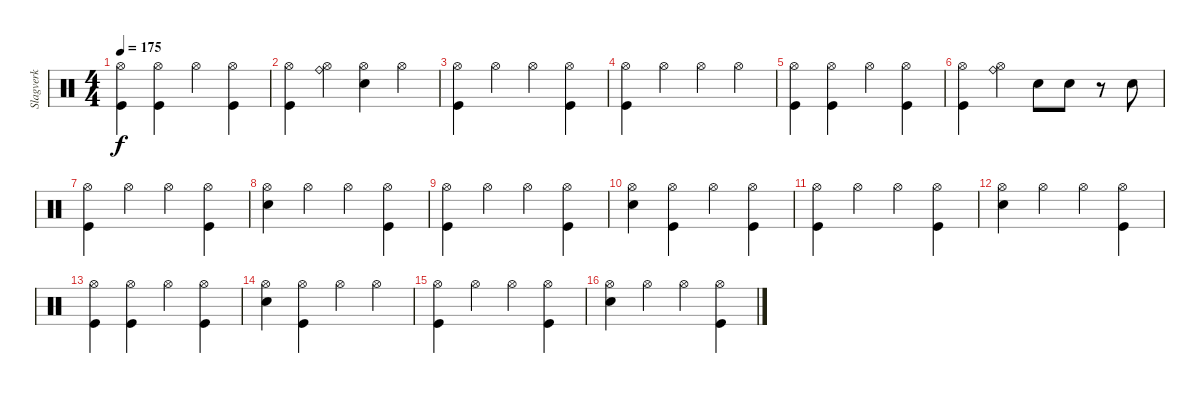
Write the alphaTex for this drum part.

\track ("Slagverk" "Slagverk") {instrument percussion}
\staff {score}
\articulation defaults
\ts (4 4)
\tempo 175
\clef neutral
\ks c
("Hi-Hat (open)" "Kick (hit)").4{dy f} ("Hi-Hat (open)" "Kick (hit)").4 "Hi-Hat (open)".4 ("Hi-Hat (open)" "Kick (hit)").4 |
("Hi-Hat (open)" "Kick (hit)").4 ("Hi-Hat (open)" "Ride (bell)").4 ("Hi-Hat (open)" "Electric Snare (hit)").4 "Hi-Hat (open)".4 |
("Hi-Hat (open)" "Kick (hit)").4 "Hi-Hat (open)".4 "Hi-Hat (open)".4 ("Hi-Hat (open)" "Kick (hit)").4 |
("Hi-Hat (open)" "Kick (hit)").4 "Hi-Hat (open)".4 "Hi-Hat (open)".4 "Hi-Hat (open)".4 |
("Hi-Hat (open)" "Kick (hit)").4 ("Hi-Hat (open)" "Kick (hit)").4 "Hi-Hat (open)".4 ("Hi-Hat (open)" "Kick (hit)").4 |
("Hi-Hat (open)" "Kick (hit)").4 ("Hi-Hat (open)" "Ride (bell)").4 "Electric Snare (hit)".8 "Electric Snare (hit)".8 r.8 "Electric Snare (hit)".8 |
("Hi-Hat (open)" "Kick (hit)").4 "Hi-Hat (open)".4 "Hi-Hat (open)".4 ("Hi-Hat (open)" "Kick (hit)").4 |
("Hi-Hat (open)" "Electric Snare (hit)").4 "Hi-Hat (open)".4 "Hi-Hat (open)".4 ("Hi-Hat (open)" "Kick (hit)").4 |
("Hi-Hat (open)" "Kick (hit)").4 "Hi-Hat (open)".4 "Hi-Hat (open)".4 ("Hi-Hat (open)" "Kick (hit)").4 |
("Hi-Hat (open)" "Electric Snare (hit)").4 ("Hi-Hat (open)" "Kick (hit)").4 "Hi-Hat (open)".4 ("Hi-Hat (open)" "Kick (hit)").4 |
("Hi-Hat (open)" "Kick (hit)").4 "Hi-Hat (open)".4 "Hi-Hat (open)".4 ("Hi-Hat (open)" "Kick (hit)").4 |
("Hi-Hat (open)" "Electric Snare (hit)").4 "Hi-Hat (open)".4 "Hi-Hat (open)".4 ("Hi-Hat (open)" "Kick (hit)").4 |
("Hi-Hat (open)" "Kick (hit)").4 ("Hi-Hat (open)" "Kick (hit)").4 "Hi-Hat (open)".4 ("Hi-Hat (open)" "Kick (hit)").4 |
("Hi-Hat (open)" "Electric Snare (hit)").4 ("Hi-Hat (open)" "Kick (hit)").4 "Hi-Hat (open)".4 "Hi-Hat (open)".4 |
("Hi-Hat (open)" "Kick (hit)").4 "Hi-Hat (open)".4 "Hi-Hat (open)".4 ("Hi-Hat (open)" "Kick (hit)").4 |
("Hi-Hat (open)" "Electric Snare (hit)").4 "Hi-Hat (open)".4 "Hi-Hat (open)".4 ("Hi-Hat (open)" "Kick (hit)").4
